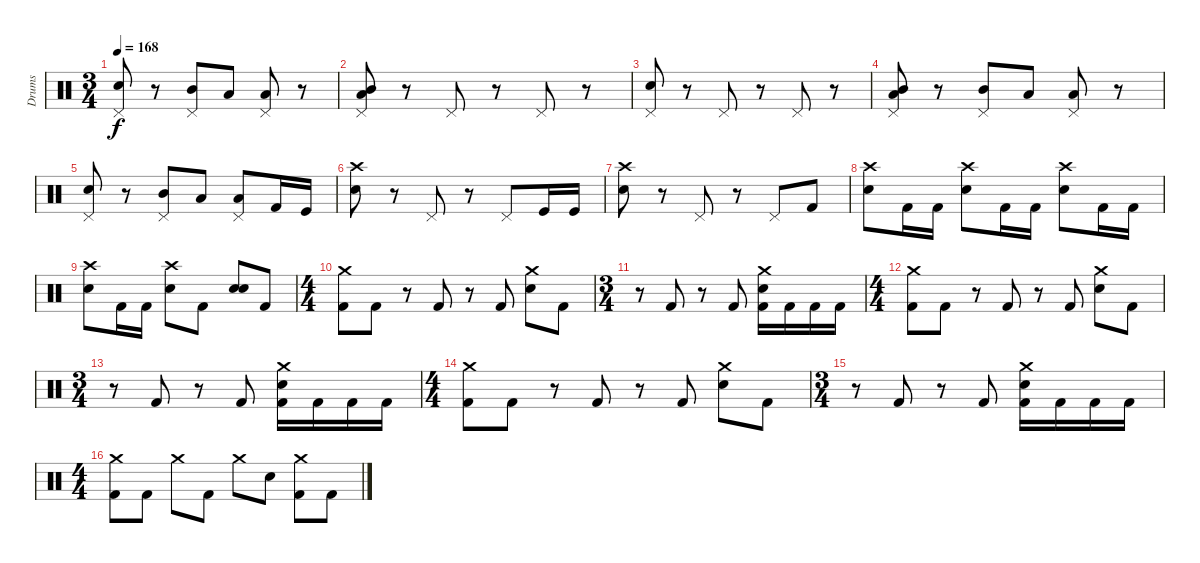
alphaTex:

\track ("Drums" "Drums") {instrument percussion}
\staff {score}
\articulation defaults
\ts (3 4)
\tempo 168
\clef neutral
\ks c
("Pedal Hi-Hat (hit)" "Electric Snare (hit)").8{dy f} r.8 ("Pedal Hi-Hat (hit)" "Mid Tom (hit)").8 "Low Tom (hit)".8 ("Pedal Hi-Hat (hit)" "Low Floor Tom (hit)").8 r.8 |
("Pedal Hi-Hat (hit)" "Mid Tom (hit)" "Low Tom (hit)").8{bu 240} r.8 "Pedal Hi-Hat (hit)".8 r.8 "Pedal Hi-Hat (hit)".8 r.8 |
("Pedal Hi-Hat (hit)" "Electric Snare (hit)").8 r.8 "Pedal Hi-Hat (hit)".8 r.8 "Pedal Hi-Hat (hit)".8 r.8 |
("Pedal Hi-Hat (hit)" "Mid Tom (hit)" "Low Tom (hit)").8{bu 240} r.8 ("Pedal Hi-Hat (hit)" "Mid Tom (hit)").8 "Low Tom (hit)".8 ("Pedal Hi-Hat (hit)" "Low Floor Tom (hit)").8 r.8 |
("Pedal Hi-Hat (hit)" "Electric Snare (hit)").8 r.8 ("Pedal Hi-Hat (hit)" "Mid Tom (hit)").8 "Low Tom (hit)".8 ("Pedal Hi-Hat (hit)" "Low Floor Tom (hit)").8 "Kick (hit) 2".16 "Kick (hit)".16 |
("Crash high (hit)" "Electric Snare (hit)").8 r.8 "Pedal Hi-Hat (hit)".8 r.8 "Pedal Hi-Hat (hit)".8 "Kick (hit)".16 "Kick (hit)".16 |
("Crash high (hit)" "Electric Snare (hit)").8 r.8 "Pedal Hi-Hat (hit)".8 r.8 "Pedal Hi-Hat (hit)".8 "Kick (hit) 2".8 |
("Crash high (hit)" "Electric Snare (hit)").8 "Kick (hit) 2".16 "Kick (hit) 2".16 ("Crash high (hit)" "Electric Snare (hit)").8 "Kick (hit) 2".16 "Kick (hit) 2".16 ("Crash high (hit)" "Electric Snare (hit)").8 "Kick (hit) 2".16 "Kick (hit) 2".16 |
("Crash high (hit)" "Electric Snare (hit)").8 "Kick (hit) 2".16 "Kick (hit) 2".16 ("Crash high (hit)" "Electric Snare (hit)").8 "Kick (hit) 2".8 ("Electric Snare (hit)" "Electric Snare (hit)").8{bu 240} "Kick (hit) 2".8 |
\ts (4 4)
("Crash medium (hit)" "Kick (hit) 2").8 "Kick (hit) 2".8 r.8 "Kick (hit) 2".8 r.8 "Kick (hit) 2".8 ("Crash medium (hit)" "Electric Snare (hit)").8 "Kick (hit) 2".8 |
\ts (3 4)
r.8 "Kick (hit) 2".8 r.8 "Kick (hit) 2".8 ("Crash medium (hit)" "Electric Snare (hit)" "Kick (hit) 2").16 "Kick (hit) 2".16 "Kick (hit) 2".16 "Kick (hit) 2".16 |
\ts (4 4)
("Crash medium (hit)" "Kick (hit) 2").8 "Kick (hit) 2".8 r.8 "Kick (hit) 2".8 r.8 "Kick (hit) 2".8 ("Crash medium (hit)" "Electric Snare (hit)").8 "Kick (hit) 2".8 |
\ts (3 4)
r.8 "Kick (hit) 2".8 r.8 "Kick (hit) 2".8 ("Crash medium (hit)" "Electric Snare (hit)" "Kick (hit) 2").16 "Kick (hit) 2".16 "Kick (hit) 2".16 "Kick (hit) 2".16 |
\ts (4 4)
("Crash medium (hit)" "Kick (hit) 2").8 "Kick (hit) 2".8 r.8 "Kick (hit) 2".8 r.8 "Kick (hit) 2".8 ("Crash medium (hit)" "Electric Snare (hit)").8 "Kick (hit) 2".8 |
\ts (3 4)
r.8 "Kick (hit) 2".8 r.8 "Kick (hit) 2".8 ("Crash medium (hit)" "Electric Snare (hit)" "Kick (hit) 2").16 "Kick (hit) 2".16 "Kick (hit) 2".16 "Kick (hit) 2".16 |
\ts (4 4)
("Crash medium (hit)" "Kick (hit) 2").8 "Kick (hit) 2".8 "Crash medium (hit)".8 "Kick (hit) 2".8 "Crash medium (hit)".8 "Electric Snare (hit)".8 ("Crash medium (hit)" "Kick (hit) 2").8 "Kick (hit) 2".8
